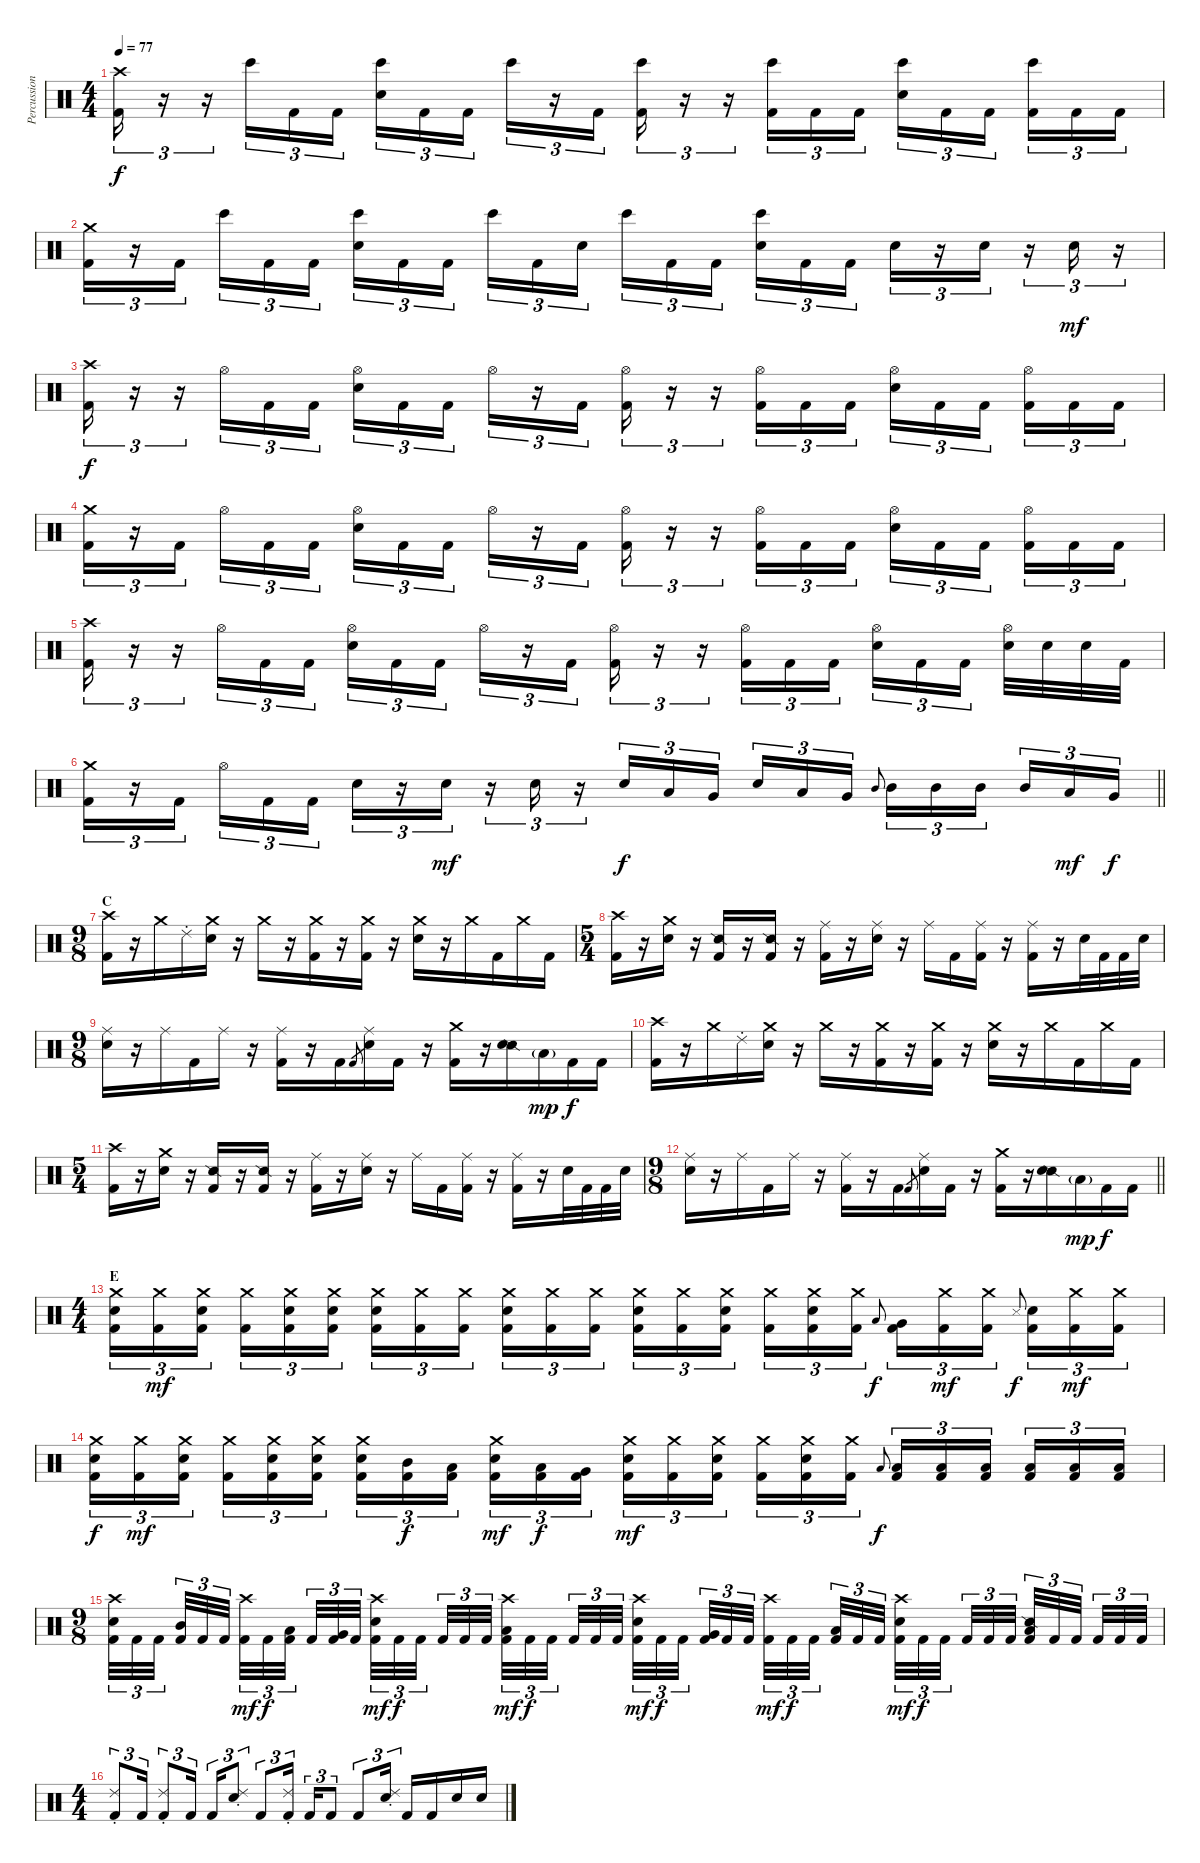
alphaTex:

\track ("Percussion" "Percussion") {instrument percussion}
\staff {score}
\articulation defaults
\ts (4 4)
\tempo 77
\clef neutral
\ks c
("Crash high (hit)" "Kick (hit) 2").16{tu (3 2) dy f} r.16{tu (3 2)} r.16{tu (3 2)} "Bongo High (hit)".16{tu (3 2)} "Kick (hit) 2".16{tu (3 2)} "Kick (hit) 2".16{tu (3 2)} ("Bongo High (hit)" "Snare (hit) 2").16{tu (3 2)} "Kick (hit) 2".16{tu (3 2)} "Kick (hit) 2".16{tu (3 2) beam splitsecondary} "Bongo High (hit)".16{tu (3 2)} r.16{tu (3 2)} "Kick (hit) 2".16{tu (3 2)} ("Bongo High (hit)" "Kick (hit) 2").16{tu (3 2)} r.16{tu (3 2)} r.16{tu (3 2)} ("Bongo High (hit)" "Kick (hit) 2").16{tu (3 2)} "Kick (hit) 2".16{tu (3 2)} "Kick (hit) 2".16{tu (3 2)} ("Bongo High (hit)" "Snare (hit) 2").16{tu (3 2)} "Kick (hit) 2".16{tu (3 2)} "Kick (hit) 2".16{tu (3 2) beam splitsecondary} ("Bongo High (hit)" "Kick (hit) 2").16{tu (3 2)} "Kick (hit) 2".16{tu (3 2)} "Kick (hit) 2".16{tu (3 2)} |
("Crash medium (hit)" "Kick (hit) 2").16{tu (3 2)} r.16{tu (3 2)} "Kick (hit) 2".16{tu (3 2) beam splitsecondary} "Bongo High (hit)".16{tu (3 2)} "Kick (hit) 2".16{tu (3 2)} "Kick (hit) 2".16{tu (3 2)} ("Bongo High (hit)" "Snare (hit) 2").16{tu (3 2)} "Kick (hit) 2".16{tu (3 2)} "Kick (hit) 2".16{tu (3 2) beam splitsecondary} "Bongo High (hit)".16{tu (3 2)} "Kick (hit) 2".16{tu (3 2)} "Snare (hit) 2".16{tu (3 2)} "Bongo High (hit)".16{tu (3 2)} "Kick (hit) 2".16{tu (3 2)} "Kick (hit) 2".16{tu (3 2) beam splitsecondary} ("Bongo High (hit)" "Snare (hit) 2").16{tu (3 2)} "Kick (hit) 2".16{tu (3 2)} "Kick (hit) 2".16{tu (3 2)} "Snare (hit) 2".16{tu (3 2)} r.16{tu (3 2)} "Snare (hit) 2".16{tu (3 2)} r.16{tu (3 2)} "Snare (hit) 2".16{tu (3 2) dy mf} r.16{tu (3 2)} |
("Crash high (hit)" "Kick (hit) 2").16{tu (3 2) dy f} r.16{tu (3 2)} r.16{tu (3 2)} "Hi-Hat (open)".16{tu (3 2)} "Kick (hit) 2".16{tu (3 2)} "Kick (hit) 2".16{tu (3 2)} ("Hi-Hat (open)" "Snare (hit) 2").16{tu (3 2)} "Kick (hit) 2".16{tu (3 2)} "Kick (hit) 2".16{tu (3 2) beam splitsecondary} "Hi-Hat (open)".16{tu (3 2)} r.16{tu (3 2)} "Kick (hit) 2".16{tu (3 2)} ("Hi-Hat (open)" "Kick (hit) 2").16{tu (3 2)} r.16{tu (3 2)} r.16{tu (3 2)} ("Hi-Hat (open)" "Kick (hit) 2").16{tu (3 2)} "Kick (hit) 2".16{tu (3 2)} "Kick (hit) 2".16{tu (3 2)} ("Hi-Hat (open)" "Snare (hit) 2").16{tu (3 2)} "Kick (hit) 2".16{tu (3 2)} "Kick (hit) 2".16{tu (3 2) beam splitsecondary} ("Hi-Hat (open)" "Kick (hit) 2").16{tu (3 2)} "Kick (hit) 2".16{tu (3 2)} "Kick (hit) 2".16{tu (3 2)} |
("Crash medium (hit)" "Kick (hit) 2").16{tu (3 2)} r.16{tu (3 2)} "Kick (hit) 2".16{tu (3 2) beam splitsecondary} "Hi-Hat (open)".16{tu (3 2)} "Kick (hit) 2".16{tu (3 2)} "Kick (hit) 2".16{tu (3 2)} ("Hi-Hat (open)" "Snare (hit) 2").16{tu (3 2)} "Kick (hit) 2".16{tu (3 2)} "Kick (hit) 2".16{tu (3 2) beam splitsecondary} "Hi-Hat (open)".16{tu (3 2)} r.16{tu (3 2)} "Kick (hit) 2".16{tu (3 2)} ("Hi-Hat (open)" "Kick (hit) 2").16{tu (3 2)} r.16{tu (3 2)} r.16{tu (3 2)} ("Hi-Hat (open)" "Kick (hit) 2").16{tu (3 2)} "Kick (hit) 2".16{tu (3 2)} "Kick (hit) 2".16{tu (3 2)} ("Hi-Hat (open)" "Snare (hit) 2").16{tu (3 2)} "Kick (hit) 2".16{tu (3 2)} "Kick (hit) 2".16{tu (3 2) beam splitsecondary} ("Hi-Hat (open)" "Kick (hit) 2").16{tu (3 2)} "Kick (hit) 2".16{tu (3 2)} "Kick (hit) 2".16{tu (3 2)} |
("Crash high (hit)" "Kick (hit) 2").16{tu (3 2)} r.16{tu (3 2)} r.16{tu (3 2)} "Hi-Hat (open)".16{tu (3 2)} "Kick (hit) 2".16{tu (3 2)} "Kick (hit) 2".16{tu (3 2)} ("Hi-Hat (open)" "Snare (hit) 2").16{tu (3 2)} "Kick (hit) 2".16{tu (3 2)} "Kick (hit) 2".16{tu (3 2) beam splitsecondary} "Hi-Hat (open)".16{tu (3 2)} r.16{tu (3 2)} "Kick (hit) 2".16{tu (3 2)} ("Hi-Hat (open)" "Kick (hit) 2").16{tu (3 2)} r.16{tu (3 2)} r.16{tu (3 2)} ("Hi-Hat (open)" "Kick (hit) 2").16{tu (3 2)} "Kick (hit) 2".16{tu (3 2)} "Kick (hit) 2".16{tu (3 2)} ("Hi-Hat (open)" "Snare (hit) 2").16{tu (3 2)} "Kick (hit) 2".16{tu (3 2)} "Kick (hit) 2".16{tu (3 2) beam splitsecondary} ("Hi-Hat (open)" "Snare (hit) 2").32 "Snare (hit) 2".32 "Snare (hit) 2".32 "Kick (hit) 2".32 |
\barLineRight lightlight
("Crash medium (hit)" "Kick (hit) 2").16{tu (3 2)} r.16{tu (3 2)} "Kick (hit) 2".16{tu (3 2) beam splitsecondary} "Hi-Hat (open)".16{tu (3 2)} "Kick (hit) 2".16{tu (3 2)} "Kick (hit) 2".16{tu (3 2)} "Snare (hit) 2".16{tu (3 2)} r.16{tu (3 2)} "Snare (hit) 2".16{tu (3 2) dy mf} r.16{tu (3 2)} "Snare (hit) 2".16{tu (3 2)} r.16{tu (3 2)} "Snare (hit) 2".16{tu (3 2) dy f} "Low Tom (hit)".16{tu (3 2)} "Very Low Tom (hit)".16{tu (3 2) beam splitsecondary} "Snare (hit) 2".16{tu (3 2)} "Low Tom (hit)".16{tu (3 2)} "Very Low Tom (hit)".16{tu (3 2)} "Mid Tom (hit)".8{gr onbeat} "Mid Tom (hit)".16{tu (3 2)} "Mid Tom (hit)".16{tu (3 2)} "Mid Tom (hit)".16{tu (3 2) beam splitsecondary} "Mid Tom (hit)".16{tu (3 2)} "Low Tom (hit)".16{tu (3 2) dy mf} "Very Low Tom (hit)".16{tu (3 2) dy f} |
\ts (9 8)
\section ("" "C")
("Crash high (hit)" "Kick (hit) 2").16 r.16 "Crash medium (hit)".16 "Ride (choke) 2".16 ("Crash medium (hit)" "Snare (hit) 2").16 r.16 "Crash medium (hit)".16 r.16 ("Crash medium (hit)" "Kick (hit) 2").16 r.16 ("Crash medium (hit)" "Kick (hit) 2").16 r.16 ("Crash medium (hit)" "Snare (hit) 2").16 r.16 "Crash medium (hit)".16 "Kick (hit) 2".16 "Crash medium (hit)".16 "Kick (hit) 2".16 |
\ts (5 4)
("Crash high (hit)" "Kick (hit) 2").16 r.16 ("Crash medium (hit)" "Snare (hit) 2").16 r.16 ("Snare (side stick) 2" "Kick (hit) 2").16 r.16 ("Snare (side stick) 2" "Kick (hit) 2").16 r.16 ("Ride (middle)" "Kick (hit) 2").16 r.16 ("Ride (middle)" "Snare (hit) 2").16 r.16 "Ride (middle)".16 "Kick (hit) 2".16 ("Ride (middle)" "Kick (hit) 2").16 r.16 ("Ride (middle)" "Kick (hit) 2").16 r.16 "Snare (hit) 2".32 "Kick (hit) 2".32 "Kick (hit) 2".32 "Snare (hit) 2".32 |
\ts (9 8)
("Ride (middle)" "Snare (hit) 2").16 r.16 "Ride (middle)".16 "Kick (hit) 2".16 "Ride (middle)".16 r.16 ("Ride (middle)" "Kick (hit) 2").16 r.16 "Kick (hit) 2".16 "Kick (hit) 2".8{gr} ("Ride (middle)" "Snare (hit) 2").16 "Kick (hit) 2".16 r.16 ("Crash medium (hit)" "Kick (hit) 2").16 r.16 ("Snare (side stick) 2" "Snare (hit) 2").16 "Low Tom (hit)"{g}.16{dy mp} "Kick (hit) 2".16{dy f} "Kick (hit) 2".16 |
("Crash high (hit)" "Kick (hit) 2").16 r.16 "Crash medium (hit)".16 "Ride (choke) 2".16 ("Crash medium (hit)" "Snare (hit) 2").16 r.16 "Crash medium (hit)".16 r.16 ("Crash medium (hit)" "Kick (hit) 2").16 r.16 ("Crash medium (hit)" "Kick (hit) 2").16 r.16 ("Crash medium (hit)" "Snare (hit) 2").16 r.16 "Crash medium (hit)".16 "Kick (hit) 2".16 "Crash medium (hit)".16 "Kick (hit) 2".16 |
\ts (5 4)
("Crash high (hit)" "Kick (hit) 2").16 r.16 ("Crash medium (hit)" "Snare (hit) 2").16 r.16 ("Snare (side stick) 2" "Kick (hit) 2").16 r.16 ("Snare (side stick) 2" "Kick (hit) 2").16 r.16 ("Ride (middle)" "Kick (hit) 2").16 r.16 ("Ride (middle)" "Snare (hit) 2").16 r.16 "Ride (middle)".16 "Kick (hit) 2".16 ("Ride (middle)" "Kick (hit) 2").16 r.16 ("Ride (middle)" "Kick (hit) 2").16 r.16 "Snare (hit) 2".32 "Kick (hit) 2".32 "Kick (hit) 2".32 "Snare (hit) 2".32 |
\ts (9 8)
\barLineRight lightlight
("Ride (middle)" "Snare (hit) 2").16 r.16 "Ride (middle)".16 "Kick (hit) 2".16 "Ride (middle)".16 r.16 ("Ride (middle)" "Kick (hit) 2").16 r.16 "Kick (hit) 2".16 "Kick (hit) 2".8{gr} ("Ride (middle)" "Snare (hit) 2").16 "Kick (hit) 2".16 r.16 ("Crash medium (hit)" "Kick (hit) 2").16 r.16 ("Snare (side stick) 2" "Snare (hit) 2").16 "Low Tom (hit)"{g}.16{dy mp} "Kick (hit) 2".16{dy f} "Kick (hit) 2".16 |
\ts (4 4)
\section ("" "E")
("Crash medium (hit)" "Snare (hit) 2" "Kick (hit) 2").16{tu (3 2)} ("Crash medium (hit)" "Kick (hit) 2").16{tu (3 2) dy mf} ("Crash medium (hit)" "Snare (hit) 2" "Kick (hit) 2").16{tu (3 2) beam splitsecondary} ("Crash medium (hit)" "Kick (hit) 2").16{tu (3 2)} ("Crash medium (hit)" "Snare (hit) 2" "Kick (hit) 2").16{tu (3 2)} ("Crash medium (hit)" "Snare (hit) 2" "Kick (hit) 2").16{tu (3 2)} ("Crash medium (hit)" "Snare (hit) 2" "Kick (hit) 2").16{tu (3 2)} ("Crash medium (hit)" "Kick (hit) 2").16{tu (3 2)} ("Crash medium (hit)" "Kick (hit) 2").16{tu (3 2) beam splitsecondary} ("Crash medium (hit)" "Snare (hit) 2" "Kick (hit) 2").16{tu (3 2)} ("Crash medium (hit)" "Kick (hit) 2").16{tu (3 2)} ("Crash medium (hit)" "Kick (hit) 2").16{tu (3 2)} ("Crash medium (hit)" "Snare (hit) 2" "Kick (hit) 2").16{tu (3 2)} ("Crash medium (hit)" "Kick (hit) 2").16{tu (3 2)} ("Crash medium (hit)" "Snare (hit) 2" "Kick (hit) 2").16{tu (3 2) beam splitsecondary} ("Crash medium (hit)" "Kick (hit) 2").16{tu (3 2)} ("Crash medium (hit)" "Snare (hit) 2" "Kick (hit) 2").16{tu (3 2)} ("Crash medium (hit)" "Kick (hit) 2").16{tu (3 2)} "Low Tom (hit)".8{gr onbeat dy f} ("Very Low Tom (hit)" "Kick (hit) 2").16{tu (3 2)} ("Crash medium (hit)" "Kick (hit) 2").16{tu (3 2) dy mf} ("Crash medium (hit)" "Kick (hit) 2").16{tu (3 2)} "Metronome (hit)".8{gr onbeat dy f beam splitsecondary} ("Snare (hit) 2" "Kick (hit) 2").16{tu (3 2)} ("Crash medium (hit)" "Kick (hit) 2").16{tu (3 2) dy mf} ("Crash medium (hit)" "Kick (hit) 2").16{tu (3 2)} |
("Crash medium (hit)" "Snare (hit) 2" "Kick (hit) 2").16{tu (3 2) dy f} ("Crash medium (hit)" "Kick (hit) 2").16{tu (3 2) dy mf} ("Crash medium (hit)" "Snare (hit) 2" "Kick (hit) 2").16{tu (3 2) beam splitsecondary} ("Crash medium (hit)" "Kick (hit) 2").16{tu (3 2)} ("Crash medium (hit)" "Snare (hit) 2" "Kick (hit) 2").16{tu (3 2)} ("Crash medium (hit)" "Snare (hit) 2" "Kick (hit) 2").16{tu (3 2)} ("Crash medium (hit)" "Snare (hit) 2" "Kick (hit) 2").16{tu (3 2)} ("Mid Tom (hit)" "Kick (hit) 2").16{tu (3 2) dy f} ("Low Tom (hit)" "Kick (hit) 2").16{tu (3 2) beam splitsecondary} ("Crash medium (hit)" "Snare (hit) 2" "Kick (hit) 2").16{tu (3 2) dy mf} ("Low Tom (hit)" "Kick (hit) 2").16{tu (3 2) dy f} ("Very Low Tom (hit)" "Kick (hit) 2").16{tu (3 2)} ("Crash medium (hit)" "Snare (hit) 2" "Kick (hit) 2").16{tu (3 2) dy mf} ("Crash medium (hit)" "Kick (hit) 2").16{tu (3 2)} ("Crash medium (hit)" "Snare (hit) 2" "Kick (hit) 2").16{tu (3 2) beam splitsecondary} ("Crash medium (hit)" "Kick (hit) 2").16{tu (3 2)} ("Crash medium (hit)" "Snare (hit) 2" "Kick (hit) 2").16{tu (3 2)} ("Crash medium (hit)" "Kick (hit) 2").16{tu (3 2)} "Low Tom (hit)".8{gr onbeat dy f} ("Low Tom (hit)" "Kick (hit) 2").16{tu (3 2)} ("Low Tom (hit)" "Kick (hit) 2").16{tu (3 2)} ("Low Tom (hit)" "Kick (hit) 2").16{tu (3 2) beam splitsecondary} ("Low Tom (hit)" "Kick (hit) 2").16{tu (3 2)} ("Low Tom (hit)" "Kick (hit) 2").16{tu (3 2)} ("Low Tom (hit)" "Kick (hit) 2").16{tu (3 2)} |
\ts (9 8)
("Crash high (hit)" "Snare (hit) 2" "Kick (hit) 2").32{tu (3 2)} "Kick (hit) 2".32{tu (3 2)} "Kick (hit) 2".32{tu (3 2) beam splitsecondary} ("Mid Tom (hit)" "Kick (hit) 2").32{tu (3 2)} "Kick (hit) 2".32{tu (3 2)} "Kick (hit) 2".32{tu (3 2) beam splitsecondary} ("Crash high (hit)" "Kick (hit) 2").32{tu (3 2) dy mf} "Kick (hit) 2".32{tu (3 2) dy f} ("Low Tom (hit)" "Kick (hit) 2").32{tu (3 2) beam splitsecondary} "Kick (hit) 2".32{tu (3 2)} ("Very Low Tom (hit)" "Kick (hit) 2").32{tu (3 2)} "Kick (hit) 2".32{tu (3 2)} ("Crash high (hit)" "Snare (hit) 2" "Kick (hit) 2").32{tu (3 2) dy mf} "Kick (hit) 2".32{tu (3 2) dy f} "Kick (hit) 2".32{tu (3 2) beam splitsecondary} "Kick (hit) 2".32{tu (3 2)} "Kick (hit) 2".32{tu (3 2)} "Kick (hit) 2".32{tu (3 2) beam splitsecondary} ("Crash high (hit)" "Low Tom (hit)" "Kick (hit) 2").32{tu (3 2) dy mf} "Kick (hit) 2".32{tu (3 2) dy f} "Kick (hit) 2".32{tu (3 2) beam splitsecondary} "Kick (hit) 2".32{tu (3 2)} "Kick (hit) 2".32{tu (3 2)} "Kick (hit) 2".32{tu (3 2)} ("Crash high (hit)" "Snare (hit) 2" "Kick (hit) 2").32{tu (3 2) dy mf} "Kick (hit) 2".32{tu (3 2) dy f} "Kick (hit) 2".32{tu (3 2) beam splitsecondary} ("Very Low Tom (hit)" "Kick (hit) 2").32{tu (3 2)} "Kick (hit) 2".32{tu (3 2)} "Kick (hit) 2".32{tu (3 2) beam splitsecondary} ("Crash high (hit)" "Kick (hit) 2").32{tu (3 2) dy mf} "Kick (hit) 2".32{tu (3 2) dy f} "Kick (hit) 2".32{tu (3 2) beam splitsecondary} ("Low Tom (hit)" "Kick (hit) 2").32{tu (3 2)} "Kick (hit) 2".32{tu (3 2)} "Kick (hit) 2".32{tu (3 2)} ("Crash high (hit)" "Snare (hit) 2" "Kick (hit) 2").32{tu (3 2) dy mf} "Kick (hit) 2".32{tu (3 2) dy f} "Kick (hit) 2".32{tu (3 2) beam splitsecondary} "Kick (hit) 2".32{tu (3 2)} "Kick (hit) 2".32{tu (3 2)} "Kick (hit) 2".32{tu (3 2) beam splitsecondary} ("Snare (side stick) 2" "Low Floor Tom (hit)" "Kick (hit) 2").32{tu (3 2)} "Kick (hit) 2".32{tu (3 2)} "Kick (hit) 2".32{tu (3 2) beam splitsecondary} "Kick (hit) 2".32{tu (3 2)} "Kick (hit) 2".32{tu (3 2)} "Kick (hit) 2".32{tu (3 2)} |
\ts (4 4)
("Ride (choke) 2" "Kick (hit) 2").8{tu (3 2)} "Kick (hit) 2".16{tu (3 2)} ("Ride (choke) 2" "Kick (hit) 2").8{tu (3 2)} "Kick (hit) 2".16{tu (3 2)} "Kick (hit) 2".16{tu (3 2)} ("Ride (choke) 2" "Snare (hit) 2").8{tu (3 2)} "Kick (hit) 2".8{tu (3 2)} ("Ride (choke) 2" "Kick (hit) 2").16{tu (3 2)} "Kick (hit) 2".16{tu (3 2)} "Kick (hit) 2".8{tu (3 2)} "Kick (hit) 2".8{tu (3 2)} ("Ride (choke) 2" "Snare (hit) 2").16{tu (3 2)} "Kick (hit) 2".16 "Kick (hit) 2".16 "Snare (hit) 2".16 "Snare (hit) 2".16
